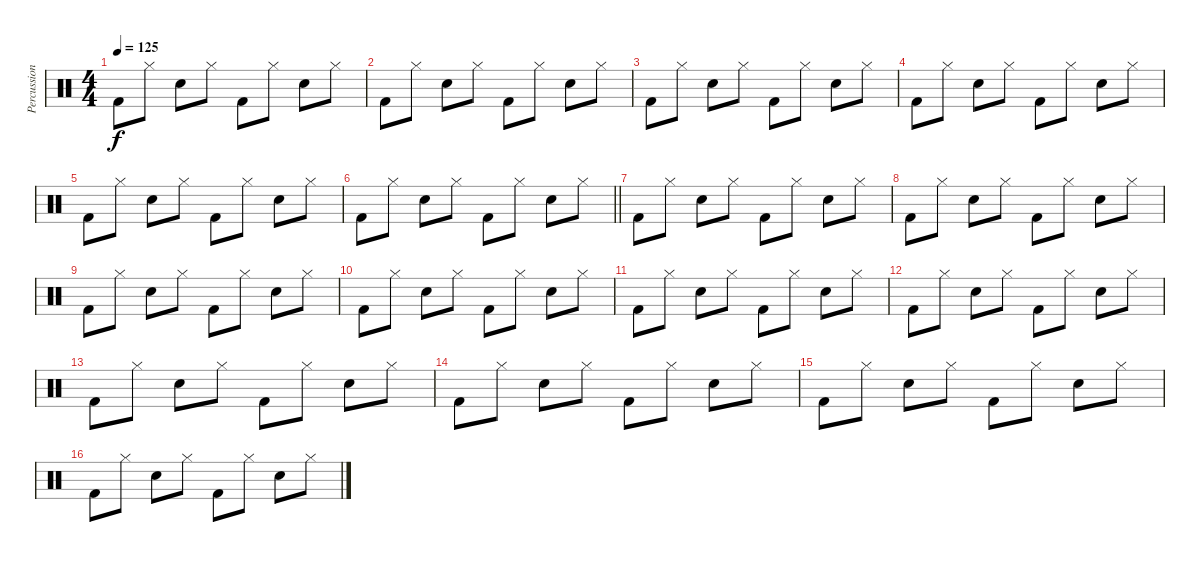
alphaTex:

\track ("Percussion" "Percussion") {instrument percussion}
\staff {score}
\articulation defaults
\ts (4 4)
\tempo 125
\clef neutral
\ks c "Kick (hit) 2".8{dy f} "Hi-Hat (closed)".8 "Snare (hit) 2".8 "Hi-Hat (closed)".8 "Kick (hit) 2".8 "Hi-Hat (closed)".8 "Snare (hit) 2".8 "Hi-Hat (closed)".8
|
"Kick (hit) 2".8 "Hi-Hat (closed)".8 "Snare (hit) 2".8 "Hi-Hat (closed)".8 "Kick (hit) 2".8 "Hi-Hat (closed)".8 "Snare (hit) 2".8 "Hi-Hat (closed)".8 |
"Kick (hit) 2".8 "Hi-Hat (closed)".8 "Snare (hit) 2".8 "Hi-Hat (closed)".8 "Kick (hit) 2".8 "Hi-Hat (closed)".8 "Snare (hit) 2".8 "Hi-Hat (closed)".8 |
"Kick (hit) 2".8 "Hi-Hat (closed)".8 "Snare (hit) 2".8 "Hi-Hat (closed)".8 "Kick (hit) 2".8 "Hi-Hat (closed)".8 "Snare (hit) 2".8 "Hi-Hat (closed)".8 |
"Kick (hit) 2".8 "Hi-Hat (closed)".8 "Snare (hit) 2".8 "Hi-Hat (closed)".8 "Kick (hit) 2".8 "Hi-Hat (closed)".8 "Snare (hit) 2".8 "Hi-Hat (closed)".8 |
\barLineRight lightlight "Kick (hit) 2".8 "Hi-Hat (closed)".8 "Snare (hit) 2".8 "Hi-Hat (closed)".8 "Kick (hit) 2".8 "Hi-Hat (closed)".8 "Snare (hit) 2".8 "Hi-Hat (closed)".8
|
"Kick (hit) 2".8 "Hi-Hat (closed)".8 "Snare (hit) 2".8 "Hi-Hat (closed)".8 "Kick (hit) 2".8 "Hi-Hat (closed)".8 "Snare (hit) 2".8 "Hi-Hat (closed)".8 |
"Kick (hit) 2".8 "Hi-Hat (closed)".8 "Snare (hit) 2".8 "Hi-Hat (closed)".8 "Kick (hit) 2".8 "Hi-Hat (closed)".8 "Snare (hit) 2".8 "Hi-Hat (closed)".8 |
"Kick (hit) 2".8 "Hi-Hat (closed)".8 "Snare (hit) 2".8 "Hi-Hat (closed)".8 "Kick (hit) 2".8 "Hi-Hat (closed)".8 "Snare (hit) 2".8 "Hi-Hat (closed)".8 |
"Kick (hit) 2".8 "Hi-Hat (closed)".8 "Snare (hit) 2".8 "Hi-Hat (closed)".8 "Kick (hit) 2".8 "Hi-Hat (closed)".8 "Snare (hit) 2".8 "Hi-Hat (closed)".8 |
"Kick (hit) 2".8 "Hi-Hat (closed)".8 "Snare (hit) 2".8 "Hi-Hat (closed)".8 "Kick (hit) 2".8 "Hi-Hat (closed)".8 "Snare (hit) 2".8 "Hi-Hat (closed)".8 |
"Kick (hit) 2".8 "Hi-Hat (closed)".8 "Snare (hit) 2".8 "Hi-Hat (closed)".8 "Kick (hit) 2".8 "Hi-Hat (closed)".8 "Snare (hit) 2".8 "Hi-Hat (closed)".8 |
"Kick (hit) 2".8 "Hi-Hat (closed)".8 "Snare (hit) 2".8 "Hi-Hat (closed)".8 "Kick (hit) 2".8 "Hi-Hat (closed)".8 "Snare (hit) 2".8 "Hi-Hat (closed)".8 |
"Kick (hit) 2".8 "Hi-Hat (closed)".8 "Snare (hit) 2".8 "Hi-Hat (closed)".8 "Kick (hit) 2".8 "Hi-Hat (closed)".8 "Snare (hit) 2".8 "Hi-Hat (closed)".8 |
"Kick (hit) 2".8 "Hi-Hat (closed)".8 "Snare (hit) 2".8 "Hi-Hat (closed)".8 "Kick (hit) 2".8 "Hi-Hat (closed)".8 "Snare (hit) 2".8 "Hi-Hat (closed)".8 |
"Kick (hit) 2".8 "Hi-Hat (closed)".8 "Snare (hit) 2".8 "Hi-Hat (closed)".8 "Kick (hit) 2".8 "Hi-Hat (closed)".8 "Snare (hit) 2".8 "Hi-Hat (closed)".8
